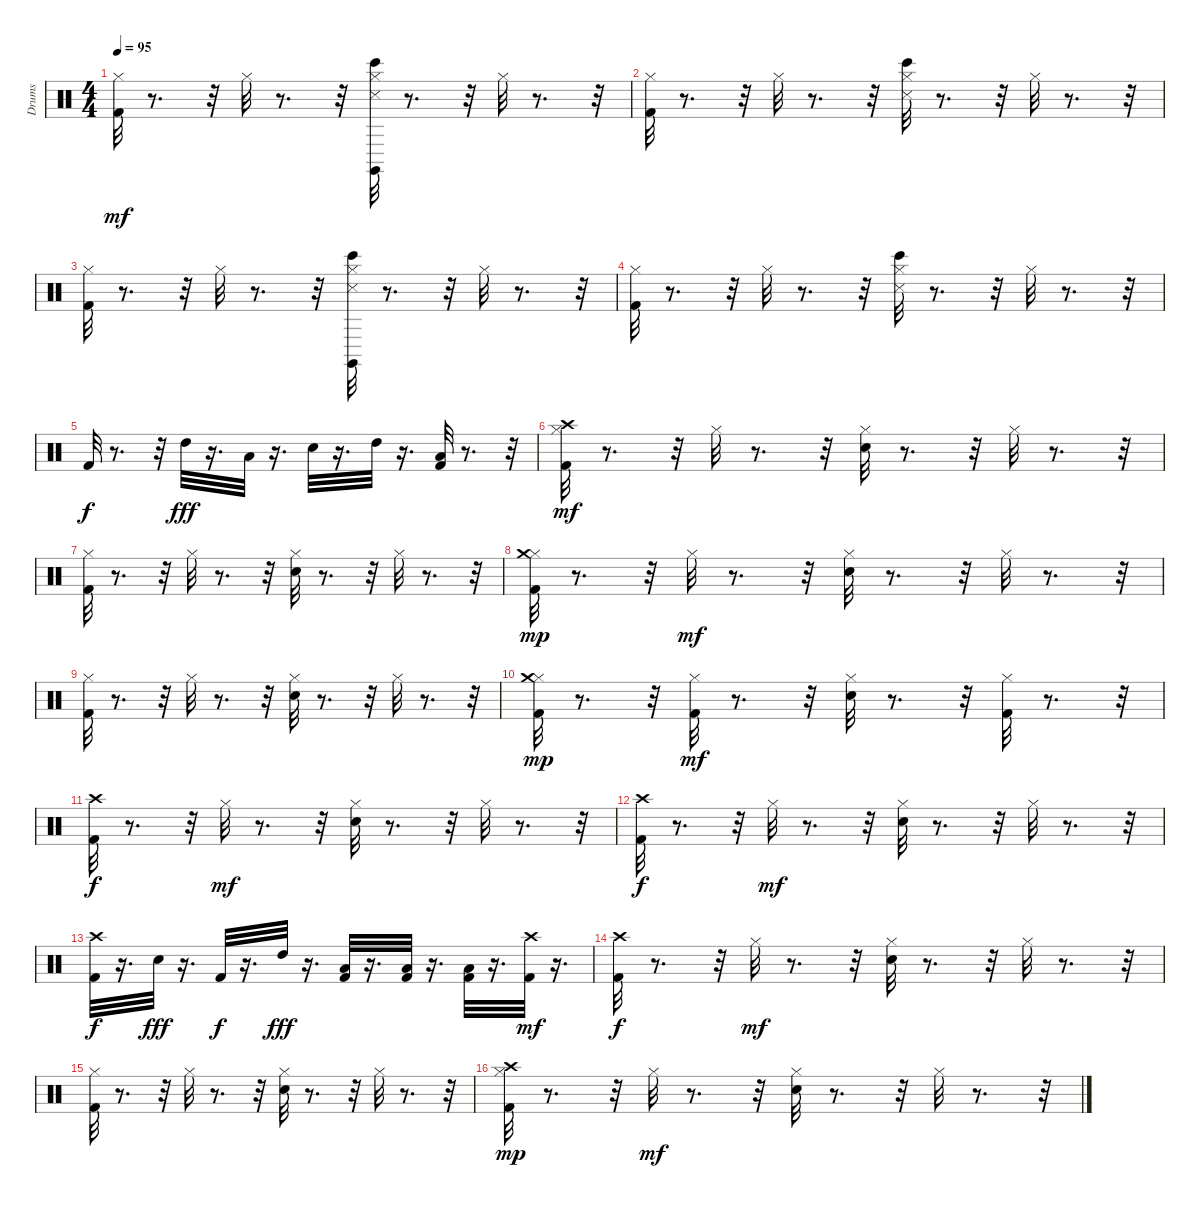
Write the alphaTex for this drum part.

\track ("Drums" "Drums") {instrument percussion}
\staff {score}
\articulation defaults
\ts (4 4)
\tempo 95
\clef neutral
\ks c
("Hi-Hat (closed)" "Kick (hit) 2").32{dy mf} r.8{d} r.32 "Hi-Hat (closed)".32 r.8{d} r.32 ("Claves (hit)" "Bongo High (hit)" "Snare (side stick) 3" "Hi-Hat (closed)").32 r.8{d} r.32 "Hi-Hat (closed)".32 r.8{d} r.32 |
("Hi-Hat (closed)" "Kick (hit) 2").32 r.8{d} r.32 "Hi-Hat (closed)".32 r.8{d} r.32 ("Bongo High (hit)" "Snare (side stick) 3" "Hi-Hat (closed)").32 r.8{d} r.32 "Hi-Hat (closed)".32 r.8{d} r.32 |
("Hi-Hat (closed)" "Kick (hit) 2").32 r.8{d} r.32 "Hi-Hat (closed)".32 r.8{d} r.32 ("Claves (hit)" "Bongo High (hit)" "Snare (side stick) 3" "Hi-Hat (closed)").32 r.8{d} r.32 "Hi-Hat (closed)".32 r.8{d} r.32 |
("Hi-Hat (closed)" "Kick (hit) 2").32 r.8{d} r.32 "Hi-Hat (closed)".32 r.8{d} r.32 ("Bongo High (hit)" "Snare (side stick) 3" "Hi-Hat (closed)").32 r.8{d} r.32 "Hi-Hat (closed)".32 r.8{d} r.32 |
"Kick (hit) 2".32{dy f} r.8{d} r.32 "High Tom (hit)".32{dy fff} r.16{d} "Low Tom (hit)".32 r.16{d} "Snare (hit) 2".32 r.16{d} "High Tom (hit)".32 r.16{d} ("Kick (hit) 2" "Low Floor Tom (hit)").32 r.8{d} r.32 |
("Hi-Hat (closed)" "Kick (hit) 2" "Crash high (hit)").32{dy mf} r.8{d} r.32 "Hi-Hat (closed)".32 r.8{d} r.32 ("Electric Snare (hit)" "Hi-Hat (closed)").32 r.8{d} r.32 "Hi-Hat (closed)".32 r.8{d} r.32 |
("Hi-Hat (closed)" "Kick (hit) 2").32 r.8{d} r.32 "Hi-Hat (closed)".32 r.8{d} r.32 ("Electric Snare (hit)" "Hi-Hat (closed)").32 r.8{d} r.32 "Hi-Hat (closed)".32 r.8{d} r.32 |
("Hi-Hat (closed)" "Kick (hit) 2" "Crash medium (hit)").32{dy mp} r.8{d} r.32 "Hi-Hat (closed)".32{dy mf} r.8{d} r.32 ("Electric Snare (hit)" "Hi-Hat (closed)").32 r.8{d} r.32 "Hi-Hat (closed)".32 r.8{d} r.32 |
("Hi-Hat (closed)" "Kick (hit) 2").32 r.8{d} r.32 "Hi-Hat (closed)".32 r.8{d} r.32 ("Electric Snare (hit)" "Hi-Hat (closed)").32 r.8{d} r.32 "Hi-Hat (closed)".32 r.8{d} r.32 |
("Hi-Hat (closed)" "Kick (hit) 2" "Crash medium (hit)").32{dy mp} r.8{d} r.32 ("Kick (hit) 2" "Hi-Hat (closed)").32{dy mf} r.8{d} r.32 ("Electric Snare (hit)" "Hi-Hat (closed)").32 r.8{d} r.32 ("Kick (hit) 2" "Hi-Hat (closed)").32 r.8{d} r.32 |
("Crash high (hit)" "Kick (hit) 2").32{dy f} r.8{d} r.32 "Hi-Hat (closed)".32{dy mf} r.8{d} r.32 ("Electric Snare (hit)" "Hi-Hat (closed)").32 r.8{d} r.32 "Hi-Hat (closed)".32 r.8{d} r.32 |
("Crash high (hit)" "Kick (hit) 2").32{dy f} r.8{d} r.32 "Hi-Hat (closed)".32{dy mf} r.8{d} r.32 ("Electric Snare (hit)" "Hi-Hat (closed)").32 r.8{d} r.32 "Hi-Hat (closed)".32 r.8{d} r.32 |
("Crash high (hit)" "Kick (hit) 2").32{dy f} r.16{d} "Electric Snare (hit)".32{dy fff} r.16{d} "Kick (hit) 2".32{dy f} r.16{d} "High Tom (hit)".32{dy fff} r.16{d} ("Kick (hit) 2" "Low Tom (hit)").32 r.16{d} ("Kick (hit) 2" "Low Floor Tom (hit)").32 r.16{d} ("Kick (hit) 2" "Low Floor Tom (hit)").32 r.16{d} ("Crash high (hit)" "Kick (hit) 2").32{dy mf} r.16{d} |
("Crash high (hit)" "Kick (hit) 2").32{dy f} r.8{d} r.32 "Hi-Hat (closed)".32{dy mf} r.8{d} r.32 ("Electric Snare (hit)" "Hi-Hat (closed)").32 r.8{d} r.32 "Hi-Hat (closed)".32 r.8{d} r.32 |
("Hi-Hat (closed)" "Kick (hit) 2").32 r.8{d} r.32 "Hi-Hat (closed)".32 r.8{d} r.32 ("Electric Snare (hit)" "Hi-Hat (closed)").32 r.8{d} r.32 "Hi-Hat (closed)".32 r.8{d} r.32 |
("Hi-Hat (closed)" "Kick (hit) 2" "Crash high (hit)").32{dy mp} r.8{d} r.32 "Hi-Hat (closed)".32{dy mf} r.8{d} r.32 ("Electric Snare (hit)" "Hi-Hat (closed)").32 r.8{d} r.32 "Hi-Hat (closed)".32 r.8{d} r.32
